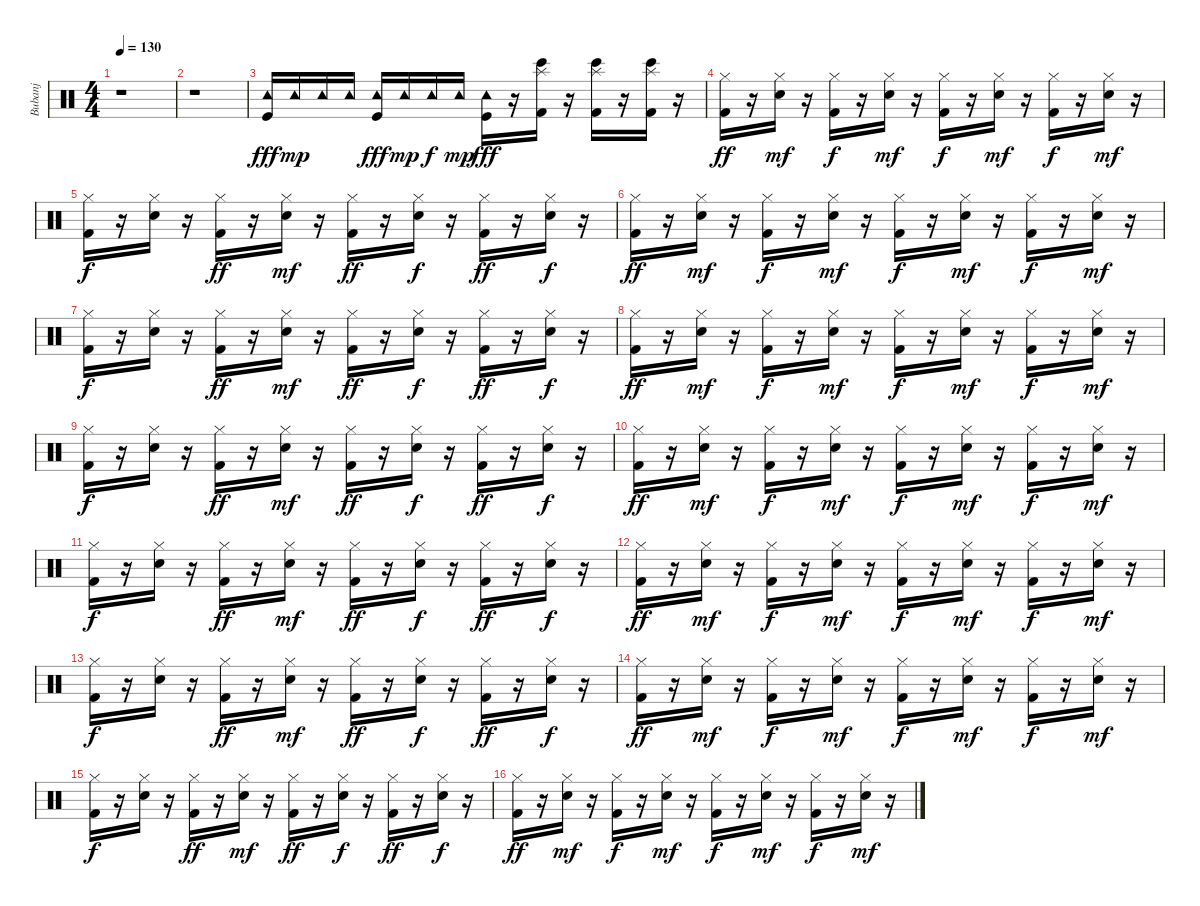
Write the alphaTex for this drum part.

\track ("Bubanj" "Bubanj") {instrument percussion}
\staff {score}
\articulation defaults
\ts (4 4)
\tempo 130
\clef neutral
\ks c
r.1{dy fff} |
r.1 |
("Tambourine (hit)" "Kick (hit)").16 "Tambourine (hit)".16{dy mp} "Tambourine (hit)".16 "Tambourine (hit)".16 ("Tambourine (hit)" "Kick (hit)").16{dy fff} "Tambourine (hit)".16{dy mp} "Tambourine (hit)".16{dy f} "Tambourine (hit)".16{dy mp} ("Tambourine (hit)" "Kick (hit)").16{dy fff} r.16 ("Bongo High (hit)" "Kick (hit) 2" "Splash (hit)").16 r.16 ("Bongo High (hit)" "Kick (hit) 2" "Splash (hit)").16 r.16 ("Bongo High (hit)" "Kick (hit) 2" "Splash (hit)").16 r.16 |
("Kick (hit) 2" "Hi-Hat (closed)").16{dy ff} r.16 ("Snare (hit) 2" "Hi-Hat (closed)").16{dy mf} r.16 ("Kick (hit) 2" "Hi-Hat (closed)").16{dy f} r.16 ("Snare (hit) 2" "Hi-Hat (closed)").16{dy mf} r.16 ("Kick (hit) 2" "Hi-Hat (closed)").16{dy f} r.16 ("Snare (hit) 2" "Hi-Hat (closed)").16{dy mf} r.16 ("Kick (hit) 2" "Hi-Hat (closed)").16{dy f} r.16 ("Snare (hit) 2" "Hi-Hat (closed)").16{dy mf} r.16 |
("Kick (hit) 2" "Hi-Hat (closed)").16{dy f} r.16 ("Snare (hit) 2" "Hi-Hat (closed)").16 r.16 ("Kick (hit) 2" "Hi-Hat (closed)").16{dy ff} r.16 ("Snare (hit) 2" "Hi-Hat (closed)").16{dy mf} r.16 ("Kick (hit) 2" "Hi-Hat (closed)").16{dy ff} r.16 ("Snare (hit) 2" "Hi-Hat (closed)").16{dy f} r.16 ("Kick (hit) 2" "Hi-Hat (closed)").16{dy ff} r.16 ("Snare (hit) 2" "Hi-Hat (closed)").16{dy f} r.16 |
("Kick (hit) 2" "Hi-Hat (closed)").16{dy ff} r.16 ("Snare (hit) 2" "Hi-Hat (closed)").16{dy mf} r.16 ("Kick (hit) 2" "Hi-Hat (closed)").16{dy f} r.16 ("Snare (hit) 2" "Hi-Hat (closed)").16{dy mf} r.16 ("Kick (hit) 2" "Hi-Hat (closed)").16{dy f} r.16 ("Snare (hit) 2" "Hi-Hat (closed)").16{dy mf} r.16 ("Kick (hit) 2" "Hi-Hat (closed)").16{dy f} r.16 ("Snare (hit) 2" "Hi-Hat (closed)").16{dy mf} r.16 |
("Kick (hit) 2" "Hi-Hat (closed)").16{dy f} r.16 ("Snare (hit) 2" "Hi-Hat (closed)").16 r.16 ("Kick (hit) 2" "Hi-Hat (closed)").16{dy ff} r.16 ("Snare (hit) 2" "Hi-Hat (closed)").16{dy mf} r.16 ("Kick (hit) 2" "Hi-Hat (closed)").16{dy ff} r.16 ("Snare (hit) 2" "Hi-Hat (closed)").16{dy f} r.16 ("Kick (hit) 2" "Hi-Hat (closed)").16{dy ff} r.16 ("Snare (hit) 2" "Hi-Hat (closed)").16{dy f} r.16 |
("Kick (hit) 2" "Hi-Hat (closed)").16{dy ff} r.16 ("Snare (hit) 2" "Hi-Hat (closed)").16{dy mf} r.16 ("Kick (hit) 2" "Hi-Hat (closed)").16{dy f} r.16 ("Snare (hit) 2" "Hi-Hat (closed)").16{dy mf} r.16 ("Kick (hit) 2" "Hi-Hat (closed)").16{dy f} r.16 ("Snare (hit) 2" "Hi-Hat (closed)").16{dy mf} r.16 ("Kick (hit) 2" "Hi-Hat (closed)").16{dy f} r.16 ("Snare (hit) 2" "Hi-Hat (closed)").16{dy mf} r.16 |
("Kick (hit) 2" "Hi-Hat (closed)").16{dy f} r.16 ("Snare (hit) 2" "Hi-Hat (closed)").16 r.16 ("Kick (hit) 2" "Hi-Hat (closed)").16{dy ff} r.16 ("Snare (hit) 2" "Hi-Hat (closed)").16{dy mf} r.16 ("Kick (hit) 2" "Hi-Hat (closed)").16{dy ff} r.16 ("Snare (hit) 2" "Hi-Hat (closed)").16{dy f} r.16 ("Kick (hit) 2" "Hi-Hat (closed)").16{dy ff} r.16 ("Snare (hit) 2" "Hi-Hat (closed)").16{dy f} r.16 |
("Kick (hit) 2" "Hi-Hat (closed)").16{dy ff} r.16 ("Snare (hit) 2" "Hi-Hat (closed)").16{dy mf} r.16 ("Kick (hit) 2" "Hi-Hat (closed)").16{dy f} r.16 ("Snare (hit) 2" "Hi-Hat (closed)").16{dy mf} r.16 ("Kick (hit) 2" "Hi-Hat (closed)").16{dy f} r.16 ("Snare (hit) 2" "Hi-Hat (closed)").16{dy mf} r.16 ("Kick (hit) 2" "Hi-Hat (closed)").16{dy f} r.16 ("Snare (hit) 2" "Hi-Hat (closed)").16{dy mf} r.16 |
("Kick (hit) 2" "Hi-Hat (closed)").16{dy f} r.16 ("Snare (hit) 2" "Hi-Hat (closed)").16 r.16 ("Kick (hit) 2" "Hi-Hat (closed)").16{dy ff} r.16 ("Snare (hit) 2" "Hi-Hat (closed)").16{dy mf} r.16 ("Kick (hit) 2" "Hi-Hat (closed)").16{dy ff} r.16 ("Snare (hit) 2" "Hi-Hat (closed)").16{dy f} r.16 ("Kick (hit) 2" "Hi-Hat (closed)").16{dy ff} r.16 ("Snare (hit) 2" "Hi-Hat (closed)").16{dy f} r.16 |
("Kick (hit) 2" "Hi-Hat (closed)").16{dy ff} r.16 ("Snare (hit) 2" "Hi-Hat (closed)").16{dy mf} r.16 ("Kick (hit) 2" "Hi-Hat (closed)").16{dy f} r.16 ("Snare (hit) 2" "Hi-Hat (closed)").16{dy mf} r.16 ("Kick (hit) 2" "Hi-Hat (closed)").16{dy f} r.16 ("Snare (hit) 2" "Hi-Hat (closed)").16{dy mf} r.16 ("Kick (hit) 2" "Hi-Hat (closed)").16{dy f} r.16 ("Snare (hit) 2" "Hi-Hat (closed)").16{dy mf} r.16 |
("Kick (hit) 2" "Hi-Hat (closed)").16{dy f} r.16 ("Snare (hit) 2" "Hi-Hat (closed)").16 r.16 ("Kick (hit) 2" "Hi-Hat (closed)").16{dy ff} r.16 ("Snare (hit) 2" "Hi-Hat (closed)").16{dy mf} r.16 ("Kick (hit) 2" "Hi-Hat (closed)").16{dy ff} r.16 ("Snare (hit) 2" "Hi-Hat (closed)").16{dy f} r.16 ("Kick (hit) 2" "Hi-Hat (closed)").16{dy ff} r.16 ("Snare (hit) 2" "Hi-Hat (closed)").16{dy f} r.16 |
("Kick (hit) 2" "Hi-Hat (closed)").16{dy ff} r.16 ("Snare (hit) 2" "Hi-Hat (closed)").16{dy mf} r.16 ("Kick (hit) 2" "Hi-Hat (closed)").16{dy f} r.16 ("Snare (hit) 2" "Hi-Hat (closed)").16{dy mf} r.16 ("Kick (hit) 2" "Hi-Hat (closed)").16{dy f} r.16 ("Snare (hit) 2" "Hi-Hat (closed)").16{dy mf} r.16 ("Kick (hit) 2" "Hi-Hat (closed)").16{dy f} r.16 ("Snare (hit) 2" "Hi-Hat (closed)").16{dy mf} r.16 |
("Kick (hit) 2" "Hi-Hat (closed)").16{dy f} r.16 ("Snare (hit) 2" "Hi-Hat (closed)").16 r.16 ("Kick (hit) 2" "Hi-Hat (closed)").16{dy ff} r.16 ("Snare (hit) 2" "Hi-Hat (closed)").16{dy mf} r.16 ("Kick (hit) 2" "Hi-Hat (closed)").16{dy ff} r.16 ("Snare (hit) 2" "Hi-Hat (closed)").16{dy f} r.16 ("Kick (hit) 2" "Hi-Hat (closed)").16{dy ff} r.16 ("Snare (hit) 2" "Hi-Hat (closed)").16{dy f} r.16 |
("Kick (hit) 2" "Hi-Hat (closed)").16{dy ff} r.16 ("Snare (hit) 2" "Hi-Hat (closed)").16{dy mf} r.16 ("Kick (hit) 2" "Hi-Hat (closed)").16{dy f} r.16 ("Snare (hit) 2" "Hi-Hat (closed)").16{dy mf} r.16 ("Kick (hit) 2" "Hi-Hat (closed)").16{dy f} r.16 ("Snare (hit) 2" "Hi-Hat (closed)").16{dy mf} r.16 ("Kick (hit) 2" "Hi-Hat (closed)").16{dy f} r.16 ("Snare (hit) 2" "Hi-Hat (closed)").16{dy mf} r.16
